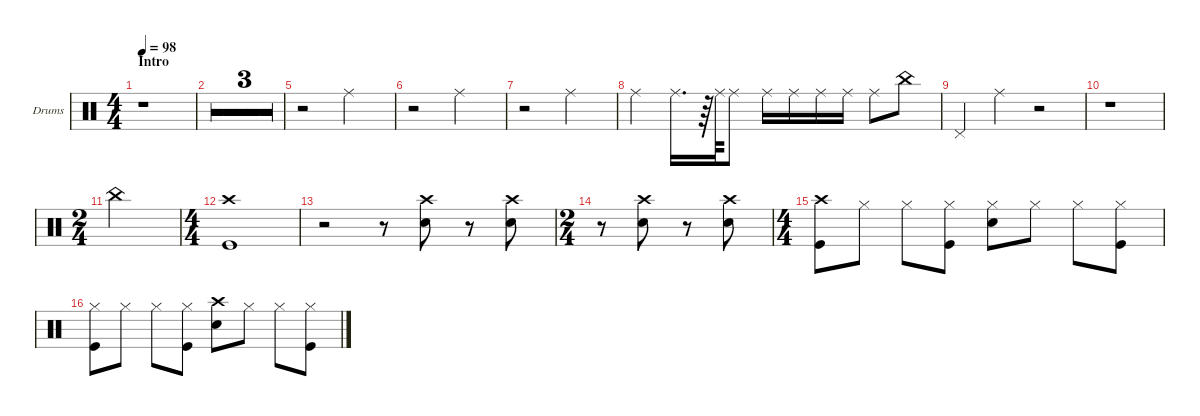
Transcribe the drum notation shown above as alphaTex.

\hideDynamics
\bracketExtendMode groupsimilarinstruments
\firstSystemTrackNameOrientation horizontal
\otherSystemsTrackNameOrientation horizontal
\track ("Drumkit" "Drums") {multiBarRest instrument percussion}
\staff {score}
\articulation defaults
\ts (4 4)
\section ("" "Intro")
\tempo 98
\clef neutral
\ks c
r.1{dy f} |
r.1 |
r.1 |
r.1 |
r.2 "Ride (middle)".2 |
r.2 "Ride (middle)".2 |
r.2 "Ride (middle)".2 |
"Ride (middle)".4 "Ride (middle)".16{d} r.64 "Ride (middle)".64 "Ride (middle)".8 "Ride (middle)".16 "Ride (middle)".16 "Ride (middle)".16 "Ride (middle)".16 "Ride (middle)".8 "China (hit)".8 |
"Pedal Hi-Hat (hit)".4 "Ride (middle)".4 r.2 |
r.1 |
\ts (2 4)
"China (hit)".2 |
\ts (4 4)
("Crash high (hit)" "Kick (hit)").1 |
r.2 r.8 ("Snare (hit) 2" "Crash high (hit)").8 r.8 ("Snare (hit) 2" "Crash high (hit)").8 |
\ts (2 4)
r.8 ("Snare (hit) 2" "Crash high (hit)").8 r.8 ("Snare (hit) 2" "Crash high (hit)").8 |
\ts (4 4)
("Kick (hit)" "Crash high (hit)").8 "Hi-Hat (closed)".8 "Hi-Hat (closed)".8 ("Kick (hit)" "Hi-Hat (closed)").8 ("Snare (hit) 2" "Hi-Hat (closed)").8 "Hi-Hat (closed)".8 "Hi-Hat (closed)".8 ("Kick (hit)" "Hi-Hat (closed)").8 |
("Kick (hit)" "Hi-Hat (closed)").8 "Hi-Hat (closed)".8 "Hi-Hat (closed)".8 ("Kick (hit)" "Hi-Hat (closed)").8 ("Crash high (hit)" "Snare (hit) 2").8 "Hi-Hat (closed)".8 "Hi-Hat (closed)".8 ("Kick (hit)" "Hi-Hat (closed)").8
